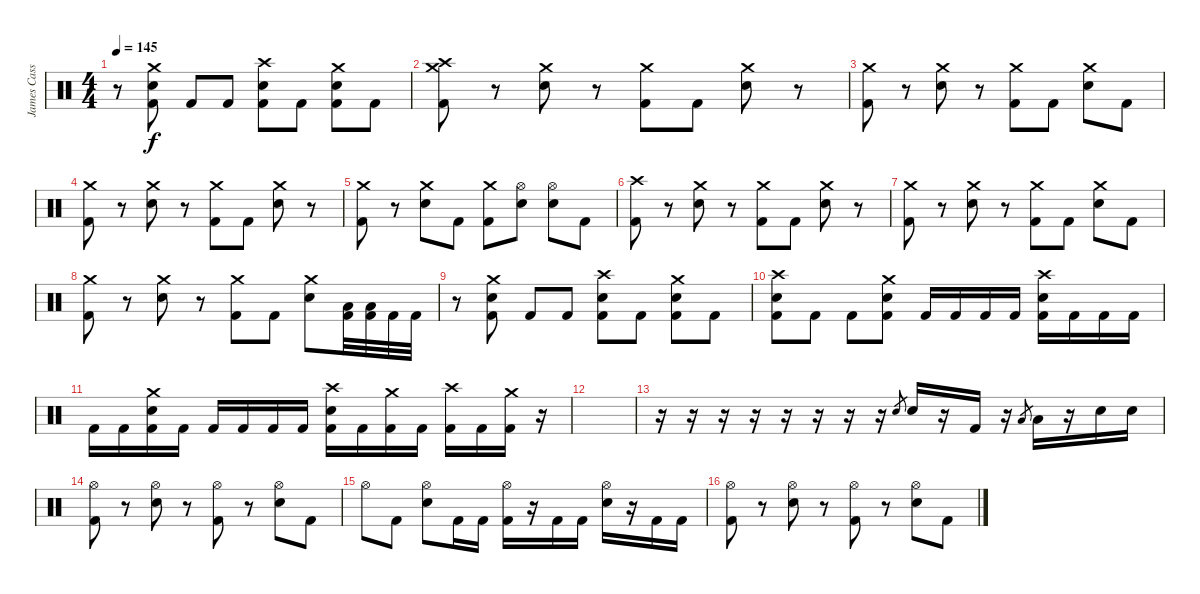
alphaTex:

\track ("James Cassells" "James Cass") {instrument percussion}
\staff {score}
\articulation defaults
\ts (4 4)
\tempo 145
\clef neutral
\ks c
r.8{dy f} ("Crash medium (hit)" "Electric Snare (hit)" "Kick (hit) 2").8 "Kick (hit) 2".8 "Kick (hit) 2".8 ("Crash high (hit)" "Electric Snare (hit)" "Kick (hit) 2").8 "Kick (hit) 2".8 ("Crash medium (hit)" "Electric Snare (hit)" "Kick (hit) 2").8 "Kick (hit) 2".8 |
("Crash high (hit)" "Crash medium (hit)" "Kick (hit) 2").8 r.8 ("Crash medium (hit)" "Electric Snare (hit)").8 r.8 ("Crash medium (hit)" "Kick (hit) 2").8 "Kick (hit) 2".8 ("Crash medium (hit)" "Electric Snare (hit)").8 r.8 |
("Crash medium (hit)" "Kick (hit) 2").8 r.8 ("Crash medium (hit)" "Electric Snare (hit)").8 r.8 ("Crash medium (hit)" "Kick (hit) 2").8 "Kick (hit) 2".8 ("Crash medium (hit)" "Electric Snare (hit)").8 "Kick (hit) 2".8 |
("Crash medium (hit)" "Kick (hit) 2").8 r.8 ("Crash medium (hit)" "Electric Snare (hit)").8 r.8 ("Crash medium (hit)" "Kick (hit) 2").8 "Kick (hit) 2".8 ("Crash medium (hit)" "Electric Snare (hit)").8 r.8 |
("Crash medium (hit)" "Kick (hit) 2").8 r.8 ("Crash medium (hit)" "Electric Snare (hit)").8 "Kick (hit) 2".8 ("Crash medium (hit)" "Kick (hit) 2").8 ("Hi-Hat (open)" "Electric Snare (hit)").8 ("Hi-Hat (open)" "Electric Snare (hit)").8 "Kick (hit) 2".8 |
("Crash high (hit)" "Kick (hit) 2").8 r.8 ("Crash medium (hit)" "Electric Snare (hit)").8 r.8 ("Crash medium (hit)" "Kick (hit) 2").8 "Kick (hit) 2".8 ("Crash medium (hit)" "Electric Snare (hit)").8 r.8 |
("Crash medium (hit)" "Kick (hit) 2").8 r.8 ("Crash medium (hit)" "Electric Snare (hit)").8 r.8 ("Crash medium (hit)" "Kick (hit) 2").8 "Kick (hit) 2".8 ("Crash medium (hit)" "Electric Snare (hit)").8 "Kick (hit) 2".8 |
("Crash medium (hit)" "Kick (hit) 2").8 r.8 ("Crash medium (hit)" "Electric Snare (hit)").8 r.8 ("Crash medium (hit)" "Kick (hit) 2").8 "Kick (hit) 2".8 ("Crash medium (hit)" "Electric Snare (hit)").8 ("Low Tom (hit)" "Kick (hit) 2").32 ("Low Floor Tom (hit)" "Kick (hit) 2").32 "Kick (hit) 2".32 "Kick (hit) 2".32 |
r.8 ("Crash medium (hit)" "Electric Snare (hit)" "Kick (hit) 2").8 "Kick (hit) 2".8 "Kick (hit) 2".8 ("Crash high (hit)" "Electric Snare (hit)" "Kick (hit) 2").8 "Kick (hit) 2".8 ("Crash medium (hit)" "Electric Snare (hit)" "Kick (hit) 2").8 "Kick (hit) 2".8 |
("Crash high (hit)" "Electric Snare (hit)" "Kick (hit) 2").8 "Kick (hit) 2".8 "Kick (hit) 2".8 ("Crash medium (hit)" "Electric Snare (hit)" "Kick (hit) 2").8 "Kick (hit) 2".16 "Kick (hit) 2".16 "Kick (hit) 2".16 "Kick (hit) 2".16 ("Crash high (hit)" "Electric Snare (hit)" "Kick (hit) 2").16 "Kick (hit) 2".16 "Kick (hit) 2".16 "Kick (hit) 2".16 |
"Kick (hit) 2".16 "Kick (hit) 2".16 ("Crash medium (hit)" "Electric Snare (hit)" "Kick (hit) 2").16 "Kick (hit) 2".16 "Kick (hit) 2".16 "Kick (hit) 2".16 "Kick (hit) 2".16 "Kick (hit) 2".16 ("Crash high (hit)" "Electric Snare (hit)" "Kick (hit) 2").16 "Kick (hit) 2".16 ("Crash medium (hit)" "Kick (hit) 2").16 "Kick (hit) 2".16 ("Crash high (hit)" "Kick (hit) 2").16 "Kick (hit) 2".16 ("Crash medium (hit)" "Kick (hit) 2").16 r.16 |
|
r.16 r.16 r.16 r.16 r.16 r.16 r.16 r.16 "Electric Snare (hit)".8{gr} "Electric Snare (hit)".16 r.16 "Kick (hit) 2".16 r.16 "Low Floor Tom (hit)".8{gr} "Low Floor Tom (hit)".16 r.16 "Electric Snare (hit)".16 "Electric Snare (hit)".16 |
("Hi-Hat (open)" "Kick (hit) 2").8 r.8 ("Hi-Hat (open)" "Electric Snare (hit)").8 r.8 ("Hi-Hat (open)" "Kick (hit) 2").8 r.8 ("Hi-Hat (open)" "Electric Snare (hit)").8 "Kick (hit) 2".8 |
"Hi-Hat (open)".8 "Kick (hit) 2".8 ("Hi-Hat (open)" "Electric Snare (hit)").8 "Kick (hit) 2".16 "Kick (hit) 2".16 ("Hi-Hat (open)" "Kick (hit) 2").16 r.16 "Kick (hit) 2".16 "Kick (hit) 2".16 ("Hi-Hat (open)" "Electric Snare (hit)").16 r.16 "Kick (hit) 2".16 "Kick (hit) 2".16 |
("Hi-Hat (open)" "Kick (hit) 2").8 r.8 ("Hi-Hat (open)" "Electric Snare (hit)").8 r.8 ("Hi-Hat (open)" "Kick (hit) 2").8 r.8 ("Hi-Hat (open)" "Electric Snare (hit)").8 "Kick (hit) 2".8
